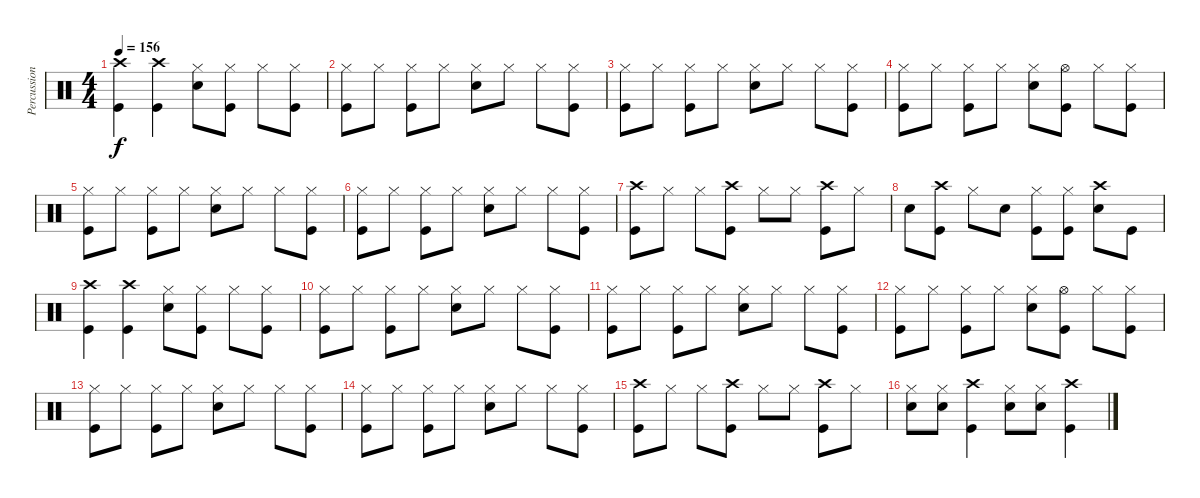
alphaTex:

\track ("Percussion" "Percussion") {instrument percussion}
\staff {score}
\articulation defaults
\ts (4 4)
\tempo 156
\clef neutral
\ks c
("Crash high (hit)" "Kick (hit)").4{dy f} ("Crash high (hit)" "Kick (hit)").4 ("Hi-Hat (closed)" "Electric Snare (hit)").8 ("Hi-Hat (closed)" "Kick (hit)").8 "Hi-Hat (closed)".8 ("Hi-Hat (closed)" "Kick (hit)").8 |
("Hi-Hat (closed)" "Kick (hit)").8 "Hi-Hat (closed)".8 ("Hi-Hat (closed)" "Kick (hit)").8 "Hi-Hat (closed)".8 ("Hi-Hat (closed)" "Electric Snare (hit)").8 "Hi-Hat (closed)".8 "Hi-Hat (closed)".8 ("Hi-Hat (closed)" "Kick (hit)").8 |
("Hi-Hat (closed)" "Kick (hit)").8 "Hi-Hat (closed)".8 ("Hi-Hat (closed)" "Kick (hit)").8 "Hi-Hat (closed)".8 ("Hi-Hat (closed)" "Electric Snare (hit)").8 "Hi-Hat (closed)".8 "Hi-Hat (closed)".8 ("Hi-Hat (closed)" "Kick (hit)").8 |
("Hi-Hat (closed)" "Kick (hit)").8 "Hi-Hat (closed)".8 ("Hi-Hat (closed)" "Kick (hit)").8 "Hi-Hat (closed)".8 ("Hi-Hat (closed)" "Electric Snare (hit)").8 ("Hi-Hat (open)" "Kick (hit)").8 "Hi-Hat (closed)".8 ("Hi-Hat (closed)" "Kick (hit)").8 |
("Hi-Hat (closed)" "Kick (hit)").8 "Hi-Hat (closed)".8 ("Hi-Hat (closed)" "Kick (hit)").8 "Hi-Hat (closed)".8 ("Hi-Hat (closed)" "Electric Snare (hit)").8 "Hi-Hat (closed)".8 "Hi-Hat (closed)".8 ("Hi-Hat (closed)" "Kick (hit)").8 |
("Hi-Hat (closed)" "Kick (hit)").8 "Hi-Hat (closed)".8 ("Hi-Hat (closed)" "Kick (hit)").8 "Hi-Hat (closed)".8 ("Hi-Hat (closed)" "Electric Snare (hit)").8 "Hi-Hat (closed)".8 "Hi-Hat (closed)".8 ("Hi-Hat (closed)" "Kick (hit)").8 |
("Crash high (hit)" "Kick (hit)").8 "Hi-Hat (closed)".8 "Hi-Hat (closed)".8 ("Crash high (hit)" "Kick (hit)").8 "Hi-Hat (closed)".8 "Hi-Hat (closed)".8 ("Crash high (hit)" "Kick (hit)").8 "Hi-Hat (closed)".8 |
"Electric Snare (hit)".8 ("Crash high (hit)" "Kick (hit)").8 "Hi-Hat (closed)".8 "Electric Snare (hit)".8 ("Hi-Hat (closed)" "Kick (hit)").8 ("Hi-Hat (closed)" "Kick (hit)").8 ("Crash high (hit)" "Electric Snare (hit)").8 "Kick (hit)".8 |
("Crash high (hit)" "Kick (hit)").4 ("Crash high (hit)" "Kick (hit)").4 ("Hi-Hat (closed)" "Electric Snare (hit)").8 ("Hi-Hat (closed)" "Kick (hit)").8 "Hi-Hat (closed)".8 ("Hi-Hat (closed)" "Kick (hit)").8 |
("Hi-Hat (closed)" "Kick (hit)").8 "Hi-Hat (closed)".8 ("Hi-Hat (closed)" "Kick (hit)").8 "Hi-Hat (closed)".8 ("Hi-Hat (closed)" "Electric Snare (hit)").8 "Hi-Hat (closed)".8 "Hi-Hat (closed)".8 ("Hi-Hat (closed)" "Kick (hit)").8 |
("Hi-Hat (closed)" "Kick (hit)").8 "Hi-Hat (closed)".8 ("Hi-Hat (closed)" "Kick (hit)").8 "Hi-Hat (closed)".8 ("Hi-Hat (closed)" "Electric Snare (hit)").8 "Hi-Hat (closed)".8 "Hi-Hat (closed)".8 ("Hi-Hat (closed)" "Kick (hit)").8 |
("Hi-Hat (closed)" "Kick (hit)").8 "Hi-Hat (closed)".8 ("Hi-Hat (closed)" "Kick (hit)").8 "Hi-Hat (closed)".8 ("Hi-Hat (closed)" "Electric Snare (hit)").8 ("Hi-Hat (open)" "Kick (hit)").8 "Hi-Hat (closed)".8 ("Hi-Hat (closed)" "Kick (hit)").8 |
("Hi-Hat (closed)" "Kick (hit)").8 "Hi-Hat (closed)".8 ("Hi-Hat (closed)" "Kick (hit)").8 "Hi-Hat (closed)".8 ("Hi-Hat (closed)" "Electric Snare (hit)").8 "Hi-Hat (closed)".8 "Hi-Hat (closed)".8 ("Hi-Hat (closed)" "Kick (hit)").8 |
("Hi-Hat (closed)" "Kick (hit)").8 "Hi-Hat (closed)".8 ("Hi-Hat (closed)" "Kick (hit)").8 "Hi-Hat (closed)".8 ("Hi-Hat (closed)" "Electric Snare (hit)").8 "Hi-Hat (closed)".8 "Hi-Hat (closed)".8 ("Hi-Hat (closed)" "Kick (hit)").8 |
("Crash high (hit)" "Kick (hit)").8 "Hi-Hat (closed)".8 "Hi-Hat (closed)".8 ("Crash high (hit)" "Kick (hit)").8 "Hi-Hat (closed)".8 "Hi-Hat (closed)".8 ("Crash high (hit)" "Kick (hit)").8 "Hi-Hat (closed)".8 |
("Hi-Hat (closed)" "Electric Snare (hit)").8 ("Hi-Hat (closed)" "Electric Snare (hit)").8 ("Crash high (hit)" "Kick (hit)").4 ("Hi-Hat (closed)" "Electric Snare (hit)").8 ("Hi-Hat (closed)" "Electric Snare (hit)").8 ("Crash high (hit)" "Kick (hit)").4
